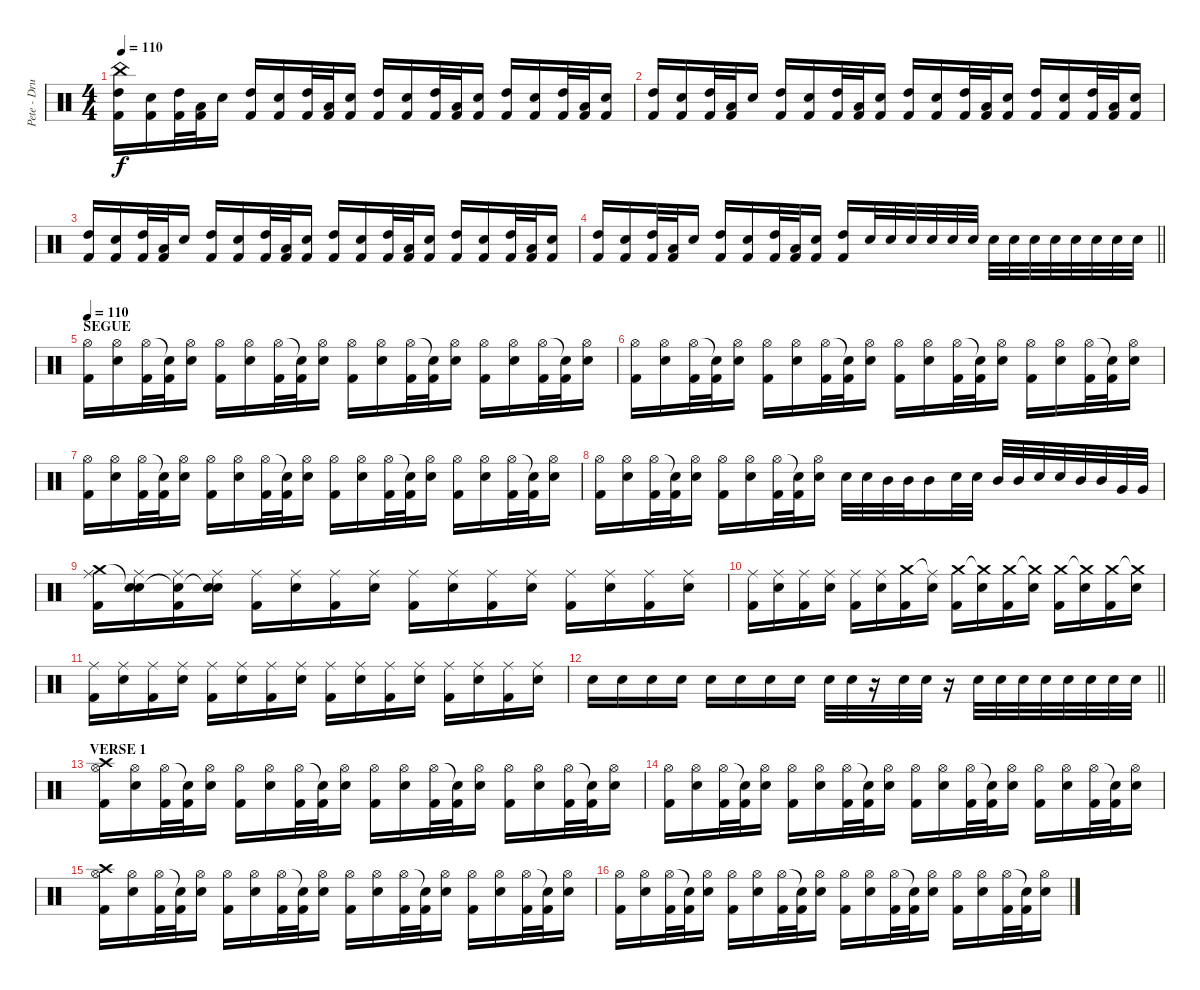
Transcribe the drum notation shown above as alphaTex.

\track ("Pete - Drums" "Pete - Dru") {instrument percussion}
\staff {score}
\articulation defaults
\ts (4 4)
\tempo 110
\clef neutral
\ks c
("China (hit)" "High Tom (hit)" "Kick (hit) 2").16{dy f} ("Electric Snare (hit)" "Kick (hit) 2").16 ("High Tom (hit)" "Kick (hit) 2").32 ("Low Tom (hit)" "Kick (hit) 2").32 "Electric Snare (hit)".16 ("High Tom (hit)" "Kick (hit) 2").16 ("Electric Snare (hit)" "Kick (hit) 2").16 ("High Tom (hit)" "Kick (hit) 2").32 ("Low Tom (hit)" "Kick (hit) 2").32 ("Electric Snare (hit)" "Kick (hit) 2").16 ("High Tom (hit)" "Kick (hit) 2").16 ("Electric Snare (hit)" "Kick (hit) 2").16 ("High Tom (hit)" "Kick (hit) 2").32 ("Low Tom (hit)" "Kick (hit) 2").32 ("Electric Snare (hit)" "Kick (hit) 2").16 ("High Tom (hit)" "Kick (hit) 2").16 ("Electric Snare (hit)" "Kick (hit) 2").16 ("High Tom (hit)" "Kick (hit) 2").32 ("Low Tom (hit)" "Kick (hit) 2").32 ("Electric Snare (hit)" "Kick (hit) 2").16 |
("High Tom (hit)" "Kick (hit) 2").16 ("Electric Snare (hit)" "Kick (hit) 2").16 ("High Tom (hit)" "Kick (hit) 2").32 ("Low Tom (hit)" "Kick (hit) 2").32 "Electric Snare (hit)".16 ("High Tom (hit)" "Kick (hit) 2").16 ("Electric Snare (hit)" "Kick (hit) 2").16 ("High Tom (hit)" "Kick (hit) 2").32 ("Low Tom (hit)" "Kick (hit) 2").32 ("Electric Snare (hit)" "Kick (hit) 2").16 ("High Tom (hit)" "Kick (hit) 2").16 ("Electric Snare (hit)" "Kick (hit) 2").16 ("High Tom (hit)" "Kick (hit) 2").32 ("Low Tom (hit)" "Kick (hit) 2").32 ("Electric Snare (hit)" "Kick (hit) 2").16 ("High Tom (hit)" "Kick (hit) 2").16 ("Electric Snare (hit)" "Kick (hit) 2").16 ("High Tom (hit)" "Kick (hit) 2").32 ("Low Tom (hit)" "Kick (hit) 2").32 ("Electric Snare (hit)" "Kick (hit) 2").16 |
("High Tom (hit)" "Kick (hit) 2").16 ("Electric Snare (hit)" "Kick (hit) 2").16 ("High Tom (hit)" "Kick (hit) 2").32 ("Low Tom (hit)" "Kick (hit) 2").32 "Electric Snare (hit)".16 ("High Tom (hit)" "Kick (hit) 2").16 ("Electric Snare (hit)" "Kick (hit) 2").16 ("High Tom (hit)" "Kick (hit) 2").32 ("Low Tom (hit)" "Kick (hit) 2").32 ("Electric Snare (hit)" "Kick (hit) 2").16 ("High Tom (hit)" "Kick (hit) 2").16 ("Electric Snare (hit)" "Kick (hit) 2").16 ("High Tom (hit)" "Kick (hit) 2").32 ("Low Tom (hit)" "Kick (hit) 2").32 ("Electric Snare (hit)" "Kick (hit) 2").16 ("High Tom (hit)" "Kick (hit) 2").16 ("Electric Snare (hit)" "Kick (hit) 2").16 ("High Tom (hit)" "Kick (hit) 2").32 ("Low Tom (hit)" "Kick (hit) 2").32 ("Electric Snare (hit)" "Kick (hit) 2").16 |
\barLineRight lightlight
("High Tom (hit)" "Kick (hit) 2").16 ("Electric Snare (hit)" "Kick (hit) 2").16 ("High Tom (hit)" "Kick (hit) 2").32 ("Low Tom (hit)" "Kick (hit) 2").32 "Electric Snare (hit)".16 ("High Tom (hit)" "Kick (hit) 2").16 ("Electric Snare (hit)" "Kick (hit) 2").16 ("High Tom (hit)" "Kick (hit) 2").32 ("Low Tom (hit)" "Kick (hit) 2").32 ("Electric Snare (hit)" "Kick (hit) 2").16 ("High Tom (hit)" "Kick (hit) 2").16 "Electric Snare (hit)".32 "Electric Snare (hit)".32 "Electric Snare (hit)".32 "Electric Snare (hit)".32 "Electric Snare (hit)".32 "Electric Snare (hit)".32 "Electric Snare (hit)".32 "Electric Snare (hit)".32 "Electric Snare (hit)".32 "Electric Snare (hit)".32 "Electric Snare (hit)".32 "Electric Snare (hit)".32 "Electric Snare (hit)".32 "Electric Snare (hit)".32 |
\section ("" "SEGUE")
\tempo 110
("Hi-Hat (open)" "Kick (hit) 2").16 ("Hi-Hat (open)" "Electric Snare (hit)").16 ("Hi-Hat (open)" "Kick (hit) 2").32 ("Snare (hit)"{t} "Kick (hit) 2").32 ("Hi-Hat (open)" "Electric Snare (hit)").16 ("Hi-Hat (open)" "Kick (hit) 2").16 ("Hi-Hat (open)" "Electric Snare (hit)").16 ("Hi-Hat (open)" "Kick (hit) 2").32 ("Snare (hit)"{t} "Kick (hit) 2").32 ("Hi-Hat (open)" "Electric Snare (hit)").16 ("Hi-Hat (open)" "Kick (hit) 2").16 ("Hi-Hat (open)" "Electric Snare (hit)").16 ("Hi-Hat (open)" "Kick (hit) 2").32 ("Snare (hit)"{t} "Kick (hit) 2").32 ("Hi-Hat (open)" "Electric Snare (hit)").16 ("Hi-Hat (open)" "Kick (hit) 2").16 ("Hi-Hat (open)" "Electric Snare (hit)").16 ("Hi-Hat (open)" "Kick (hit) 2").32 ("Snare (hit)"{t} "Kick (hit) 2").32 ("Hi-Hat (open)" "Electric Snare (hit)").16 |
("Hi-Hat (open)" "Kick (hit) 2").16 ("Hi-Hat (open)" "Electric Snare (hit)").16 ("Hi-Hat (open)" "Kick (hit) 2").32 ("Snare (hit)"{t} "Kick (hit) 2").32 ("Hi-Hat (open)" "Electric Snare (hit)").16 ("Hi-Hat (open)" "Kick (hit) 2").16 ("Hi-Hat (open)" "Electric Snare (hit)").16 ("Hi-Hat (open)" "Kick (hit) 2").32 ("Snare (hit)"{t} "Kick (hit) 2").32 ("Hi-Hat (open)" "Electric Snare (hit)").16 ("Hi-Hat (open)" "Kick (hit) 2").16 ("Hi-Hat (open)" "Electric Snare (hit)").16 ("Hi-Hat (open)" "Kick (hit) 2").32 ("Snare (hit)"{t} "Kick (hit) 2").32 ("Hi-Hat (open)" "Electric Snare (hit)").16 ("Hi-Hat (open)" "Kick (hit) 2").16 ("Hi-Hat (open)" "Electric Snare (hit)").16 ("Hi-Hat (open)" "Kick (hit) 2").32 ("Snare (hit)"{t} "Kick (hit) 2").32 ("Hi-Hat (open)" "Electric Snare (hit)").16 |
("Hi-Hat (open)" "Kick (hit) 2").16 ("Hi-Hat (open)" "Electric Snare (hit)").16 ("Hi-Hat (open)" "Kick (hit) 2").32 ("Snare (hit)"{t} "Kick (hit) 2").32 ("Hi-Hat (open)" "Electric Snare (hit)").16 ("Hi-Hat (open)" "Kick (hit) 2").16 ("Hi-Hat (open)" "Electric Snare (hit)").16 ("Hi-Hat (open)" "Kick (hit) 2").32 ("Snare (hit)"{t} "Kick (hit) 2").32 ("Hi-Hat (open)" "Electric Snare (hit)").16 ("Hi-Hat (open)" "Kick (hit) 2").16 ("Hi-Hat (open)" "Electric Snare (hit)").16 ("Hi-Hat (open)" "Kick (hit) 2").32 ("Snare (hit)"{t} "Kick (hit) 2").32 ("Hi-Hat (open)" "Electric Snare (hit)").16 ("Hi-Hat (open)" "Kick (hit) 2").16 ("Hi-Hat (open)" "Electric Snare (hit)").16 ("Hi-Hat (open)" "Kick (hit) 2").32 ("Snare (hit)"{t} "Kick (hit) 2").32 ("Hi-Hat (open)" "Electric Snare (hit)").16 |
("Hi-Hat (open)" "Kick (hit) 2").16 ("Hi-Hat (open)" "Electric Snare (hit)").16 ("Hi-Hat (open)" "Kick (hit) 2").32 ("Snare (hit)"{t} "Kick (hit) 2").32 ("Hi-Hat (open)" "Electric Snare (hit)").16 ("Hi-Hat (open)" "Kick (hit) 2").16 ("Hi-Hat (open)" "Electric Snare (hit)").16 ("Hi-Hat (open)" "Kick (hit) 2").32 ("Snare (hit)"{t} "Kick (hit) 2").32 ("Hi-Hat (open)" "Electric Snare (hit)").16 "Electric Snare (hit)".32 "Electric Snare (hit)".32 "Mid Tom (hit)".32 "Mid Tom (hit)".32 "Mid Tom (hit)".16 "Electric Snare (hit)".32 "Electric Snare (hit)".32 "Mid Tom (hit)".32 "Mid Tom (hit)".32 "Electric Snare (hit)".32 "Electric Snare (hit)".32 "Mid Tom (hit)".32 "Mid Tom (hit)".32 "Very Low Tom (hit)".32 "Very Low Tom (hit)".32 |
("Crash medium (hit)" "Ride (middle)" "Kick (hit) 2").16 ("Snare (hit)"{t} "Ride (middle)" "Electric Snare (hit)").16 ("Snare (hit)"{t} "Ride (middle)" "Kick (hit) 2").16 ("Snare (hit)"{t} "Ride (middle)" "Electric Snare (hit)").16 ("Ride (middle)" "Kick (hit) 2").16 ("Ride (middle)" "Electric Snare (hit)").16 ("Ride (middle)" "Kick (hit) 2").16 ("Ride (middle)" "Electric Snare (hit)").16 ("Ride (middle)" "Kick (hit) 2").16 ("Ride (middle)" "Electric Snare (hit)").16 ("Ride (middle)" "Kick (hit) 2").16 ("Ride (middle)" "Electric Snare (hit)").16 ("Ride (middle)" "Kick (hit) 2").16 ("Ride (middle)" "Electric Snare (hit)").16 ("Ride (middle)" "Kick (hit) 2").16 ("Ride (middle)" "Electric Snare (hit)").16 |
("Ride (middle)" "Kick (hit) 2").16 ("Ride (middle)" "Electric Snare (hit)").16 ("Ride (middle)" "Kick (hit) 2").16 ("Ride (middle)" "Electric Snare (hit)").16 ("Ride (middle)" "Kick (hit) 2").16 ("Ride (middle)" "Electric Snare (hit)").16 ("Crash medium (hit)" "Kick (hit) 2").16 ("Ride (middle)"{t} "Electric Snare (hit)").16 ("Crash medium (hit)" "Kick (hit) 2").16 ("Crash medium (hit)"{t} "Electric Snare (hit)").16 ("Crash medium (hit)" "Kick (hit) 2").16 ("Crash medium (hit)"{t} "Electric Snare (hit)").16 ("Crash medium (hit)" "Kick (hit) 2").16 ("Crash medium (hit)"{t} "Electric Snare (hit)").16 ("Crash medium (hit)" "Kick (hit) 2").16 ("Crash medium (hit)"{t} "Electric Snare (hit)").16 |
("Ride (middle)" "Kick (hit) 2").16 ("Ride (middle)" "Electric Snare (hit)").16 ("Ride (middle)" "Kick (hit) 2").16 ("Ride (middle)" "Electric Snare (hit)").16 ("Ride (middle)" "Kick (hit) 2").16 ("Ride (middle)" "Electric Snare (hit)").16 ("Ride (middle)" "Kick (hit) 2").16 ("Ride (middle)" "Electric Snare (hit)").16 ("Ride (middle)" "Kick (hit) 2").16 ("Ride (middle)" "Electric Snare (hit)").16 ("Ride (middle)" "Kick (hit) 2").16 ("Ride (middle)" "Electric Snare (hit)").16 ("Ride (middle)" "Kick (hit) 2").16 ("Ride (middle)" "Electric Snare (hit)").16 ("Ride (middle)" "Kick (hit) 2").16 ("Ride (middle)" "Electric Snare (hit)").16 |
\barLineRight lightlight "Electric Snare (hit)".16 "Electric Snare (hit)".16 "Electric Snare (hit)".16 "Electric Snare (hit)".16 "Electric Snare (hit)".16 "Electric Snare (hit)".16 "Electric Snare (hit)".16 "Electric Snare (hit)".16 "Electric Snare (hit)".32 "Electric Snare (hit)".32
r.16 "Electric Snare (hit)".32 "Electric Snare (hit)".32 r.16 "Electric Snare (hit)".32 "Electric Snare (hit)".32 "Electric Snare (hit)".32 "Electric Snare (hit)".32 "Electric Snare (hit)".32 "Electric Snare (hit)".32 "Electric Snare (hit)".32 "Electric Snare (hit)".32 |
\section ("" "VERSE 1")
("Crash high (hit)" "Hi-Hat (open)" "Kick (hit) 2").16 ("Hi-Hat (open)" "Electric Snare (hit)").16 ("Hi-Hat (open)" "Kick (hit) 2").32 ("Snare (hit)"{t} "Kick (hit) 2").32 ("Hi-Hat (open)" "Electric Snare (hit)").16 ("Hi-Hat (open)" "Kick (hit) 2").16 ("Hi-Hat (open)" "Electric Snare (hit)").16 ("Hi-Hat (open)" "Kick (hit) 2").32 ("Snare (hit)"{t} "Kick (hit) 2").32 ("Hi-Hat (open)" "Electric Snare (hit)").16 ("Hi-Hat (open)" "Kick (hit) 2").16 ("Hi-Hat (open)" "Electric Snare (hit)").16 ("Hi-Hat (open)" "Kick (hit) 2").32 ("Snare (hit)"{t} "Kick (hit) 2").32 ("Hi-Hat (open)" "Electric Snare (hit)").16 ("Hi-Hat (open)" "Kick (hit) 2").16 ("Hi-Hat (open)" "Electric Snare (hit)").16 ("Hi-Hat (open)" "Kick (hit) 2").32 ("Snare (hit)"{t} "Kick (hit) 2").32 ("Hi-Hat (open)" "Electric Snare (hit)").16 |
("Hi-Hat (open)" "Kick (hit) 2").16 ("Hi-Hat (open)" "Electric Snare (hit)").16 ("Hi-Hat (open)" "Kick (hit) 2").32 ("Snare (hit)"{t} "Kick (hit) 2").32 ("Hi-Hat (open)" "Electric Snare (hit)").16 ("Hi-Hat (open)" "Kick (hit) 2").16 ("Hi-Hat (open)" "Electric Snare (hit)").16 ("Hi-Hat (open)" "Kick (hit) 2").32 ("Snare (hit)"{t} "Kick (hit) 2").32 ("Hi-Hat (open)" "Electric Snare (hit)").16 ("Hi-Hat (open)" "Kick (hit) 2").16 ("Hi-Hat (open)" "Electric Snare (hit)").16 ("Hi-Hat (open)" "Kick (hit) 2").32 ("Snare (hit)"{t} "Kick (hit) 2").32 ("Hi-Hat (open)" "Electric Snare (hit)").16 ("Hi-Hat (open)" "Kick (hit) 2").16 ("Hi-Hat (open)" "Electric Snare (hit)").16 ("Hi-Hat (open)" "Kick (hit) 2").32 ("Snare (hit)"{t} "Kick (hit) 2").32 ("Hi-Hat (open)" "Electric Snare (hit)").16 |
("Crash high (hit)" "Hi-Hat (open)" "Kick (hit) 2").16 ("Hi-Hat (open)" "Electric Snare (hit)").16 ("Hi-Hat (open)" "Kick (hit) 2").32 ("Snare (hit)"{t} "Kick (hit) 2").32 ("Hi-Hat (open)" "Electric Snare (hit)").16 ("Hi-Hat (open)" "Kick (hit) 2").16 ("Hi-Hat (open)" "Electric Snare (hit)").16 ("Hi-Hat (open)" "Kick (hit) 2").32 ("Snare (hit)"{t} "Kick (hit) 2").32 ("Hi-Hat (open)" "Electric Snare (hit)").16 ("Hi-Hat (open)" "Kick (hit) 2").16 ("Hi-Hat (open)" "Electric Snare (hit)").16 ("Hi-Hat (open)" "Kick (hit) 2").32 ("Snare (hit)"{t} "Kick (hit) 2").32 ("Hi-Hat (open)" "Electric Snare (hit)").16 ("Hi-Hat (open)" "Kick (hit) 2").16 ("Hi-Hat (open)" "Electric Snare (hit)").16 ("Hi-Hat (open)" "Kick (hit) 2").32 ("Snare (hit)"{t} "Kick (hit) 2").32 ("Hi-Hat (open)" "Electric Snare (hit)").16 |
("Hi-Hat (open)" "Kick (hit) 2").16 ("Hi-Hat (open)" "Electric Snare (hit)").16 ("Hi-Hat (open)" "Kick (hit) 2").32 ("Snare (hit)"{t} "Kick (hit) 2").32 ("Hi-Hat (open)" "Electric Snare (hit)").16 ("Hi-Hat (open)" "Kick (hit) 2").16 ("Hi-Hat (open)" "Electric Snare (hit)").16 ("Hi-Hat (open)" "Kick (hit) 2").32 ("Snare (hit)"{t} "Kick (hit) 2").32 ("Hi-Hat (open)" "Electric Snare (hit)").16 ("Hi-Hat (open)" "Kick (hit) 2").16 ("Hi-Hat (open)" "Electric Snare (hit)").16 ("Hi-Hat (open)" "Kick (hit) 2").32 ("Snare (hit)"{t} "Kick (hit) 2").32 ("Hi-Hat (open)" "Electric Snare (hit)").16 ("Hi-Hat (open)" "Kick (hit) 2").16 ("Hi-Hat (open)" "Electric Snare (hit)").16 ("Hi-Hat (open)" "Kick (hit) 2").32 ("Snare (hit)"{t} "Kick (hit) 2").32 ("Hi-Hat (open)" "Electric Snare (hit)").16
